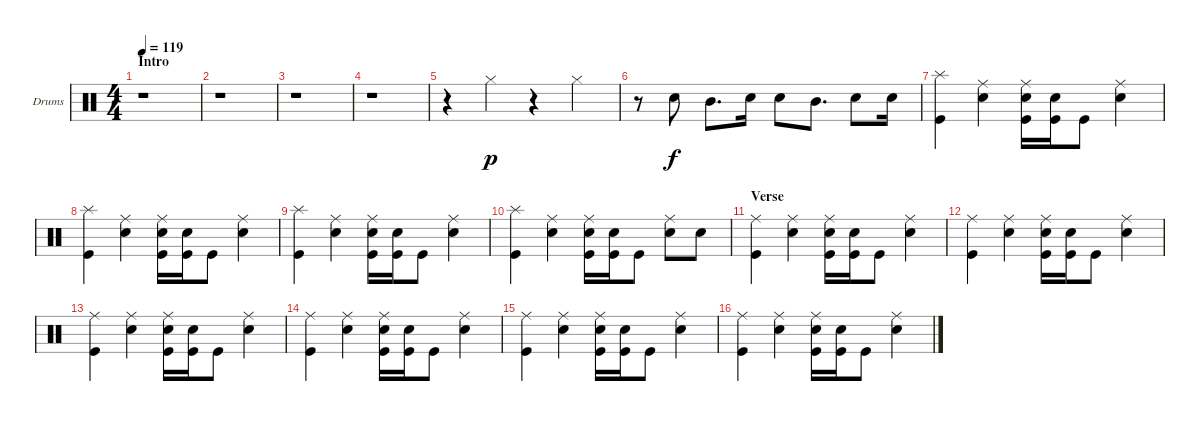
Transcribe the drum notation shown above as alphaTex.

\defaultSystemsLayout 4
\bracketExtendMode groupsimilarinstruments
\firstSystemTrackNameOrientation horizontal
\otherSystemsTrackNameOrientation horizontal
\track ("Drumkit" "Drums") {instrument percussion}
\staff {score}
\articulation defaults
\ts (4 4)
\section ("" "Intro")
\tempo 119
\clef neutral
\scale
0.474178
\ks c
r.1{dy p} |
\scale
0.262911 r.1 |
\scale
0.262911 r.1 |
\scale
0.333333 r.1 |
\scale
0.333333 r.4 "Hi-Hat (closed)".4 r.4 "Hi-Hat (closed)".4 |
\scale
0.333333 r.8 "Snare (hit) 2".8{dy f} "Mid Tom (hit)".8{d} "Snare (hit) 2".16 "Snare (hit) 2".8 "Mid Tom (hit)".8{d} "Snare (hit) 2".8 "Snare (hit) 2".16 |
\scale
0.333333 ("Kick (hit)" "Splash (hit)").4 ("Snare (hit) 2" "Ride (middle)").4 ("Kick (hit)" "Snare (hit) 2" "Ride (middle)").16 ("Kick (hit)" "Snare (hit) 2").16 "Kick (hit)".8 ("Snare (hit) 2" "Ride (middle)").4 |
\scale
0.333333 ("Kick (hit)" "Splash (hit)").4 ("Snare (hit) 2" "Ride (middle)").4 ("Kick (hit)" "Snare (hit) 2" "Ride (middle)").16 ("Kick (hit)" "Snare (hit) 2").16 "Kick (hit)".8 ("Snare (hit) 2" "Ride (middle)").4 |
\scale
0.333333 ("Kick (hit)" "Splash (hit)").4 ("Snare (hit) 2" "Ride (middle)").4 ("Kick (hit)" "Snare (hit) 2" "Ride (middle)").16 ("Kick (hit)" "Snare (hit) 2").16 "Kick (hit)".8 ("Snare (hit) 2" "Ride (middle)").4 |
("Kick (hit)" "Splash (hit)").4 ("Snare (hit) 2" "Ride (middle)").4 ("Kick (hit)" "Snare (hit) 2" "Ride (middle)").16 ("Kick (hit)" "Snare (hit) 2").16 "Kick (hit)".8 ("Snare (hit) 2" "Ride (middle)").8 "Snare (hit) 2".8 |
\section ("" "Verse")
("Kick (hit)" "Ride (middle)").4 ("Snare (hit) 2" "Ride (middle)").4 ("Kick (hit)" "Snare (hit) 2" "Ride (middle)").16 ("Kick (hit)" "Snare (hit) 2").16 "Kick (hit)".8 ("Snare (hit) 2" "Ride (middle)").4 |
("Kick (hit)" "Ride (middle)").4 ("Snare (hit) 2" "Ride (middle)").4 ("Kick (hit)" "Snare (hit) 2" "Ride (middle)").16 ("Kick (hit)" "Snare (hit) 2").16 "Kick (hit)".8 ("Snare (hit) 2" "Ride (middle)").4 |
("Kick (hit)" "Ride (middle)").4 ("Snare (hit) 2" "Ride (middle)").4 ("Kick (hit)" "Snare (hit) 2" "Ride (middle)").16 ("Kick (hit)" "Snare (hit) 2").16 "Kick (hit)".8 ("Snare (hit) 2" "Ride (middle)").4 |
("Kick (hit)" "Ride (middle)").4 ("Snare (hit) 2" "Ride (middle)").4 ("Kick (hit)" "Snare (hit) 2" "Ride (middle)").16 ("Kick (hit)" "Snare (hit) 2").16 "Kick (hit)".8 ("Snare (hit) 2" "Ride (middle)").4 |
("Kick (hit)" "Ride (middle)").4 ("Snare (hit) 2" "Ride (middle)").4 ("Kick (hit)" "Snare (hit) 2" "Ride (middle)").16 ("Kick (hit)" "Snare (hit) 2").16 "Kick (hit)".8 ("Snare (hit) 2" "Ride (middle)").4 |
("Kick (hit)" "Ride (middle)").4 ("Snare (hit) 2" "Ride (middle)").4 ("Kick (hit)" "Snare (hit) 2" "Ride (middle)").16 ("Kick (hit)" "Snare (hit) 2").16 "Kick (hit)".8 ("Snare (hit) 2" "Ride (middle)").4
